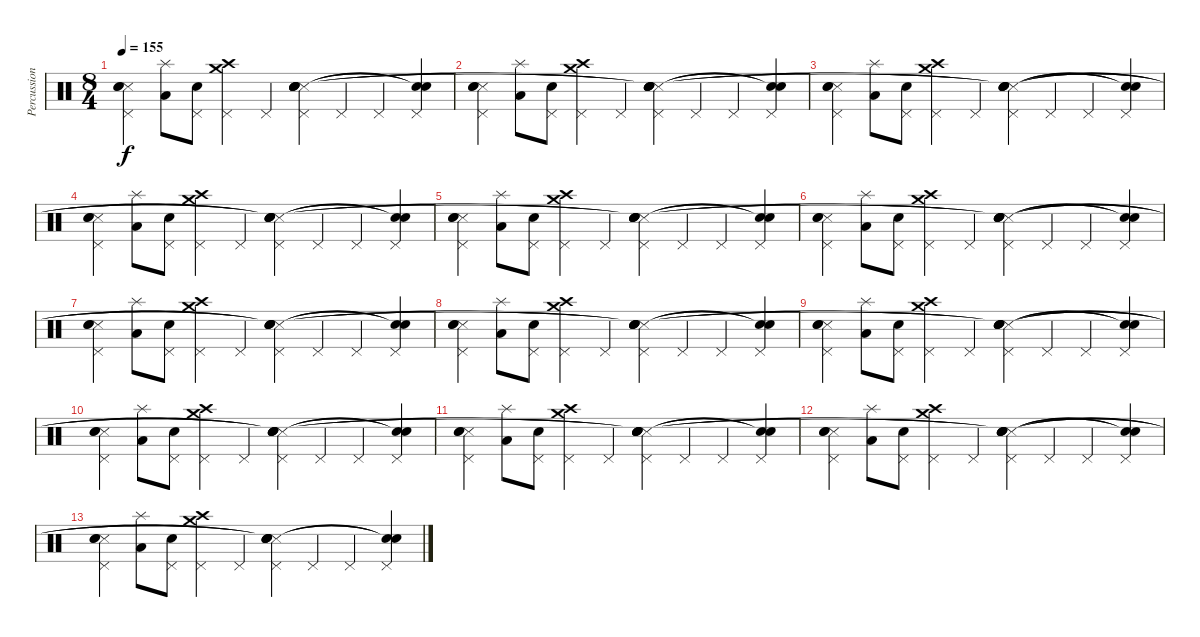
\track ("Percussion" "Percussion") {instrument percussion}
\staff {score}
\articulation defaults
\ts (8 4)
\tempo 155
\clef neutral
\ks c
("Snare (side stick) 3" "Pedal Hi-Hat (hit)" "Electric Snare (hit)" "Snare (hit) 2").4{dy f} ("Low Tom (hit)" "Splash (hit)").8 ("Pedal Hi-Hat (hit)" "Electric Snare (hit)").8 ("Pedal Hi-Hat (hit)" "Crash medium (hit)" "Crash high (hit)").4 "Pedal Hi-Hat (hit)".4 ("Pedal Hi-Hat (hit)" "Snare (side stick) 3" "Electric Snare (hit)" "Snare (hit) 2" "Snare (hit)"{t} "Snare (hit)"{t}).4 "Pedal Hi-Hat (hit)".4 "Pedal Hi-Hat (hit)".4 ("Pedal Hi-Hat (hit)" "Snare (hit)"{t} "Snare (hit)"{t}).4 |
("Snare (side stick) 3" "Pedal Hi-Hat (hit)" "Electric Snare (hit)" "Snare (hit) 2").4 ("Low Tom (hit)" "Splash (hit)").8 ("Pedal Hi-Hat (hit)" "Electric Snare (hit)").8 ("Pedal Hi-Hat (hit)" "Crash medium (hit)" "Crash high (hit)").4 "Pedal Hi-Hat (hit)".4 ("Pedal Hi-Hat (hit)" "Snare (side stick) 3" "Electric Snare (hit)" "Snare (hit) 2" "Snare (hit)"{t} "Snare (hit)"{t}).4 "Pedal Hi-Hat (hit)".4 "Pedal Hi-Hat (hit)".4 ("Pedal Hi-Hat (hit)" "Snare (hit)"{t} "Snare (hit)"{t}).4 |
("Snare (side stick) 3" "Pedal Hi-Hat (hit)" "Electric Snare (hit)" "Snare (hit) 2").4 ("Low Tom (hit)" "Splash (hit)").8 ("Pedal Hi-Hat (hit)" "Electric Snare (hit)").8 ("Pedal Hi-Hat (hit)" "Crash medium (hit)" "Crash high (hit)").4 "Pedal Hi-Hat (hit)".4 ("Pedal Hi-Hat (hit)" "Snare (side stick) 3" "Electric Snare (hit)" "Snare (hit) 2" "Snare (hit)"{t} "Snare (hit)"{t}).4 "Pedal Hi-Hat (hit)".4 "Pedal Hi-Hat (hit)".4 ("Pedal Hi-Hat (hit)" "Snare (hit)"{t} "Snare (hit)"{t}).4 |
("Snare (side stick) 3" "Pedal Hi-Hat (hit)" "Electric Snare (hit)" "Snare (hit) 2").4 ("Low Tom (hit)" "Splash (hit)").8 ("Pedal Hi-Hat (hit)" "Electric Snare (hit)").8 ("Pedal Hi-Hat (hit)" "Crash medium (hit)" "Crash high (hit)").4 "Pedal Hi-Hat (hit)".4 ("Pedal Hi-Hat (hit)" "Snare (side stick) 3" "Electric Snare (hit)" "Snare (hit) 2" "Snare (hit)"{t} "Snare (hit)"{t}).4 "Pedal Hi-Hat (hit)".4 "Pedal Hi-Hat (hit)".4 ("Pedal Hi-Hat (hit)" "Snare (hit)"{t} "Snare (hit)"{t}).4 |
("Snare (side stick) 3" "Pedal Hi-Hat (hit)" "Electric Snare (hit)" "Snare (hit) 2").4 ("Low Tom (hit)" "Splash (hit)").8 ("Pedal Hi-Hat (hit)" "Electric Snare (hit)").8 ("Pedal Hi-Hat (hit)" "Crash medium (hit)" "Crash high (hit)").4 "Pedal Hi-Hat (hit)".4 ("Pedal Hi-Hat (hit)" "Snare (side stick) 3" "Electric Snare (hit)" "Snare (hit) 2" "Snare (hit)"{t} "Snare (hit)"{t}).4 "Pedal Hi-Hat (hit)".4 "Pedal Hi-Hat (hit)".4 ("Pedal Hi-Hat (hit)" "Snare (hit)"{t} "Snare (hit)"{t}).4 |
("Snare (side stick) 3" "Pedal Hi-Hat (hit)" "Electric Snare (hit)" "Snare (hit) 2").4 ("Low Tom (hit)" "Splash (hit)").8 ("Pedal Hi-Hat (hit)" "Electric Snare (hit)").8 ("Pedal Hi-Hat (hit)" "Crash medium (hit)" "Crash high (hit)").4 "Pedal Hi-Hat (hit)".4 ("Pedal Hi-Hat (hit)" "Snare (side stick) 3" "Electric Snare (hit)" "Snare (hit) 2" "Snare (hit)"{t} "Snare (hit)"{t}).4 "Pedal Hi-Hat (hit)".4 "Pedal Hi-Hat (hit)".4 ("Pedal Hi-Hat (hit)" "Snare (hit)"{t} "Snare (hit)"{t}).4 |
("Snare (side stick) 3" "Pedal Hi-Hat (hit)" "Electric Snare (hit)" "Snare (hit) 2").4 ("Low Tom (hit)" "Splash (hit)").8 ("Pedal Hi-Hat (hit)" "Electric Snare (hit)").8 ("Pedal Hi-Hat (hit)" "Crash medium (hit)" "Crash high (hit)").4 "Pedal Hi-Hat (hit)".4 ("Pedal Hi-Hat (hit)" "Snare (side stick) 3" "Electric Snare (hit)" "Snare (hit) 2" "Snare (hit)"{t} "Snare (hit)"{t}).4 "Pedal Hi-Hat (hit)".4 "Pedal Hi-Hat (hit)".4 ("Pedal Hi-Hat (hit)" "Snare (hit)"{t} "Snare (hit)"{t}).4 |
("Snare (side stick) 3" "Pedal Hi-Hat (hit)" "Electric Snare (hit)" "Snare (hit) 2").4 ("Low Tom (hit)" "Splash (hit)").8 ("Pedal Hi-Hat (hit)" "Electric Snare (hit)").8 ("Pedal Hi-Hat (hit)" "Crash medium (hit)" "Crash high (hit)").4 "Pedal Hi-Hat (hit)".4 ("Pedal Hi-Hat (hit)" "Snare (side stick) 3" "Electric Snare (hit)" "Snare (hit) 2" "Snare (hit)"{t} "Snare (hit)"{t}).4 "Pedal Hi-Hat (hit)".4 "Pedal Hi-Hat (hit)".4 ("Pedal Hi-Hat (hit)" "Snare (hit)"{t} "Snare (hit)"{t}).4 |
("Snare (side stick) 3" "Pedal Hi-Hat (hit)" "Electric Snare (hit)" "Snare (hit) 2").4 ("Low Tom (hit)" "Splash (hit)").8 ("Pedal Hi-Hat (hit)" "Electric Snare (hit)").8 ("Pedal Hi-Hat (hit)" "Crash medium (hit)" "Crash high (hit)").4 "Pedal Hi-Hat (hit)".4 ("Pedal Hi-Hat (hit)" "Snare (side stick) 3" "Electric Snare (hit)" "Snare (hit) 2" "Snare (hit)"{t} "Snare (hit)"{t}).4 "Pedal Hi-Hat (hit)".4 "Pedal Hi-Hat (hit)".4 ("Pedal Hi-Hat (hit)" "Snare (hit)"{t} "Snare (hit)"{t}).4 |
("Snare (side stick) 3" "Pedal Hi-Hat (hit)" "Electric Snare (hit)" "Snare (hit) 2").4 ("Low Tom (hit)" "Splash (hit)").8 ("Pedal Hi-Hat (hit)" "Electric Snare (hit)").8 ("Pedal Hi-Hat (hit)" "Crash medium (hit)" "Crash high (hit)").4 "Pedal Hi-Hat (hit)".4 ("Pedal Hi-Hat (hit)" "Snare (side stick) 3" "Electric Snare (hit)" "Snare (hit) 2" "Snare (hit)"{t} "Snare (hit)"{t}).4 "Pedal Hi-Hat (hit)".4 "Pedal Hi-Hat (hit)".4 ("Pedal Hi-Hat (hit)" "Snare (hit)"{t} "Snare (hit)"{t}).4 |
("Snare (side stick) 3" "Pedal Hi-Hat (hit)" "Electric Snare (hit)" "Snare (hit) 2").4 ("Low Tom (hit)" "Splash (hit)").8 ("Pedal Hi-Hat (hit)" "Electric Snare (hit)").8 ("Pedal Hi-Hat (hit)" "Crash medium (hit)" "Crash high (hit)").4 "Pedal Hi-Hat (hit)".4 ("Pedal Hi-Hat (hit)" "Snare (side stick) 3" "Electric Snare (hit)" "Snare (hit) 2" "Snare (hit)"{t} "Snare (hit)"{t}).4 "Pedal Hi-Hat (hit)".4 "Pedal Hi-Hat (hit)".4 ("Pedal Hi-Hat (hit)" "Snare (hit)"{t} "Snare (hit)"{t}).4 |
("Snare (side stick) 3" "Pedal Hi-Hat (hit)" "Electric Snare (hit)" "Snare (hit) 2").4 ("Low Tom (hit)" "Splash (hit)").8 ("Pedal Hi-Hat (hit)" "Electric Snare (hit)").8 ("Pedal Hi-Hat (hit)" "Crash medium (hit)" "Crash high (hit)").4 "Pedal Hi-Hat (hit)".4 ("Pedal Hi-Hat (hit)" "Snare (side stick) 3" "Electric Snare (hit)" "Snare (hit) 2" "Snare (hit)"{t} "Snare (hit)"{t}).4 "Pedal Hi-Hat (hit)".4 "Pedal Hi-Hat (hit)".4 ("Pedal Hi-Hat (hit)" "Snare (hit)"{t} "Snare (hit)"{t}).4 |
("Snare (side stick) 3" "Pedal Hi-Hat (hit)" "Electric Snare (hit)" "Snare (hit) 2").4 ("Low Tom (hit)" "Splash (hit)").8 ("Pedal Hi-Hat (hit)" "Electric Snare (hit)").8 ("Pedal Hi-Hat (hit)" "Crash medium (hit)" "Crash high (hit)").4 "Pedal Hi-Hat (hit)".4 ("Pedal Hi-Hat (hit)" "Snare (side stick) 3" "Electric Snare (hit)" "Snare (hit) 2" "Snare (hit)"{t} "Snare (hit)"{t}).4 "Pedal Hi-Hat (hit)".4 "Pedal Hi-Hat (hit)".4 ("Pedal Hi-Hat (hit)" "Snare (hit)"{t} "Snare (hit)"{t}).4
